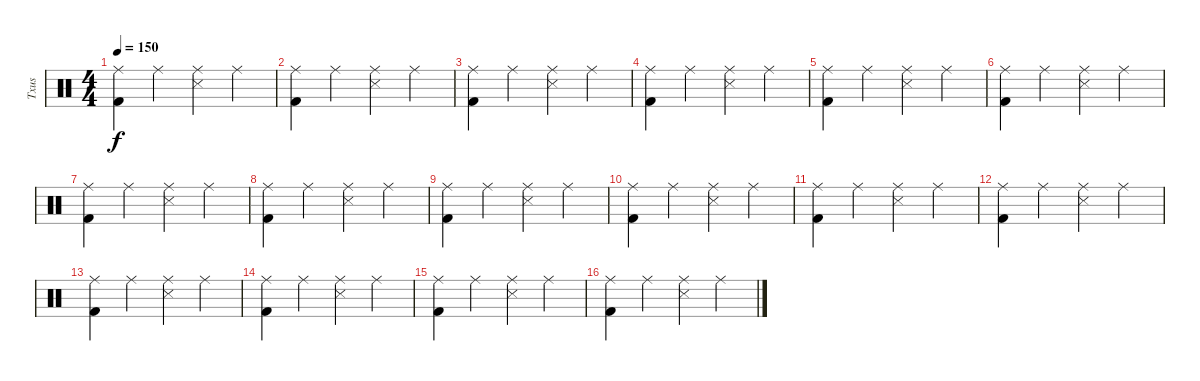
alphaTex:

\track ("Txus" "Txus") {instrument percussion}
\staff {score}
\articulation defaults
\ts (4 4)
\tempo 150
\clef neutral
\ks c
("Ride (middle)" "Kick (hit) 2").4{dy f} "Ride (middle)".4 ("Snare (side stick) 3" "Ride (middle)").4 "Ride (middle)".4 |
("Kick (hit) 2" "Ride (middle)").4 "Ride (middle)".4 ("Snare (side stick) 3" "Ride (middle)").4 "Ride (middle)".4 |
("Kick (hit) 2" "Ride (middle)").4 "Ride (middle)".4 ("Snare (side stick) 3" "Ride (middle)").4 "Ride (middle)".4 |
("Kick (hit) 2" "Ride (middle)").4 "Ride (middle)".4 ("Snare (side stick) 3" "Ride (middle)").4 "Ride (middle)".4 |
("Kick (hit) 2" "Ride (middle)").4 "Ride (middle)".4 ("Snare (side stick) 3" "Ride (middle)").4 "Ride (middle)".4 |
("Kick (hit) 2" "Ride (middle)").4 "Ride (middle)".4 ("Snare (side stick) 3" "Ride (middle)").4 "Ride (middle)".4 |
("Kick (hit) 2" "Ride (middle)").4 "Ride (middle)".4 ("Snare (side stick) 3" "Ride (middle)").4 "Ride (middle)".4 |
("Kick (hit) 2" "Ride (middle)").4 "Ride (middle)".4 ("Snare (side stick) 3" "Ride (middle)").4 "Ride (middle)".4 |
("Kick (hit) 2" "Ride (middle)").4 "Ride (middle)".4 ("Snare (side stick) 3" "Ride (middle)").4 "Ride (middle)".4 |
("Kick (hit) 2" "Ride (middle)").4 "Ride (middle)".4 ("Snare (side stick) 3" "Ride (middle)").4 "Ride (middle)".4 |
("Kick (hit) 2" "Ride (middle)").4 "Ride (middle)".4 ("Snare (side stick) 3" "Ride (middle)").4 "Ride (middle)".4 |
("Kick (hit) 2" "Ride (middle)").4 "Ride (middle)".4 ("Snare (side stick) 3" "Ride (middle)").4 "Ride (middle)".4 |
("Kick (hit) 2" "Ride (middle)").4 "Ride (middle)".4 ("Snare (side stick) 3" "Ride (middle)").4 "Ride (middle)".4 |
("Kick (hit) 2" "Ride (middle)").4 "Ride (middle)".4 ("Snare (side stick) 3" "Ride (middle)").4 "Ride (middle)".4 |
("Kick (hit) 2" "Ride (middle)").4 "Ride (middle)".4 ("Snare (side stick) 3" "Ride (middle)").4 "Ride (middle)".4 |
("Kick (hit) 2" "Ride (middle)").4 "Ride (middle)".4 ("Snare (side stick) 3" "Ride (middle)").4 "Ride (middle)".4
